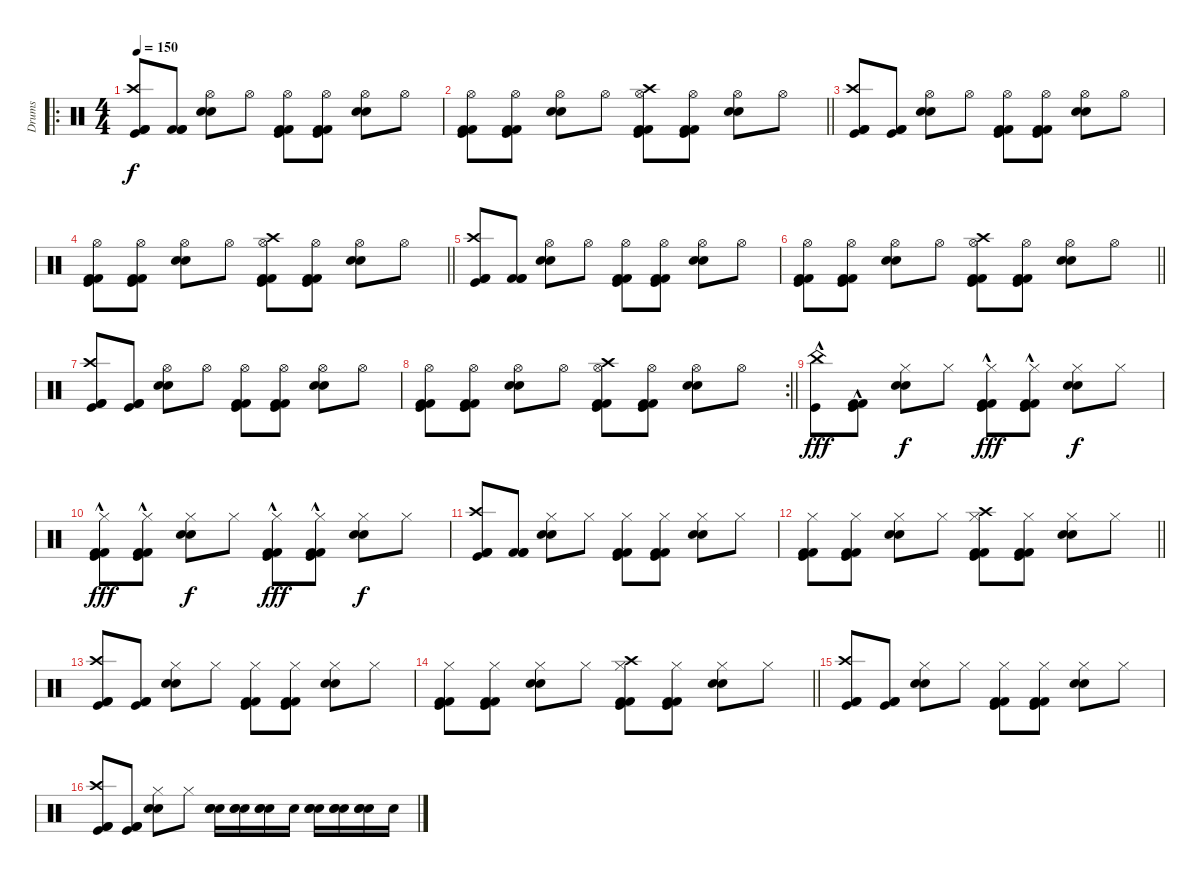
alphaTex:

\track ("Drums" "Drums") {instrument percussion}
\staff {score}
\articulation defaults
\ro
\ts (4 4)
\tempo 150
\clef neutral
\ks c
("Kick (hit) 2" "Crash high (hit)" "Kick (hit) 2" "Kick (hit)").8{dy f} ("Kick (hit) 2" "Kick (hit) 2" "Kick (hit) 2").8 ("Hi-Hat (open)" "Electric Snare (hit)" "Snare (hit) 2").8 "Hi-Hat (open)".8 ("Kick (hit) 2" "Hi-Hat (open)" "Kick (hit) 2" "Kick (hit)").8 ("Kick (hit) 2" "Hi-Hat (open)" "Kick (hit) 2" "Kick (hit)").8 ("Hi-Hat (open)" "Electric Snare (hit)" "Snare (hit) 2").8 "Hi-Hat (open)".8 |
\barLineRight lightlight
("Kick (hit) 2" "Hi-Hat (open)" "Kick (hit) 2" "Kick (hit)").8 ("Kick (hit) 2" "Hi-Hat (open)" "Kick (hit) 2" "Kick (hit)").8 ("Hi-Hat (open)" "Electric Snare (hit)" "Snare (hit) 2").8 "Hi-Hat (open)".8 ("Crash high (hit)" "Kick (hit) 2" "Hi-Hat (open)" "Kick (hit) 2" "Kick (hit)").8 ("Kick (hit) 2" "Hi-Hat (open)" "Kick (hit) 2" "Kick (hit)").8 ("Hi-Hat (open)" "Electric Snare (hit)" "Snare (hit) 2").8 "Hi-Hat (open)".8 |
("Kick (hit) 2" "Crash high (hit)" "Kick (hit) 2" "Kick (hit)").8 ("Kick (hit) 2" "Kick (hit) 2" "Kick (hit)").8 ("Hi-Hat (open)" "Electric Snare (hit)" "Snare (hit) 2").8 "Hi-Hat (open)".8 ("Kick (hit) 2" "Hi-Hat (open)" "Kick (hit) 2" "Kick (hit)").8 ("Kick (hit) 2" "Hi-Hat (open)" "Kick (hit) 2" "Kick (hit)").8 ("Hi-Hat (open)" "Electric Snare (hit)" "Snare (hit) 2").8 "Hi-Hat (open)".8 |
\barLineRight lightlight
("Kick (hit) 2" "Hi-Hat (open)" "Kick (hit) 2" "Kick (hit)").8 ("Kick (hit) 2" "Hi-Hat (open)" "Kick (hit) 2" "Kick (hit)").8 ("Hi-Hat (open)" "Electric Snare (hit)" "Snare (hit) 2").8 "Hi-Hat (open)".8 ("Crash high (hit)" "Kick (hit) 2" "Hi-Hat (open)" "Kick (hit) 2" "Kick (hit)").8 ("Kick (hit) 2" "Hi-Hat (open)" "Kick (hit) 2" "Kick (hit)").8 ("Hi-Hat (open)" "Electric Snare (hit)" "Snare (hit) 2").8 "Hi-Hat (open)".8 |
("Kick (hit) 2" "Crash high (hit)" "Kick (hit) 2" "Kick (hit)").8 ("Kick (hit) 2" "Kick (hit) 2" "Kick (hit) 2").8 ("Hi-Hat (open)" "Electric Snare (hit)" "Snare (hit) 2").8 "Hi-Hat (open)".8 ("Kick (hit) 2" "Hi-Hat (open)" "Kick (hit) 2" "Kick (hit)").8 ("Kick (hit) 2" "Hi-Hat (open)" "Kick (hit) 2" "Kick (hit)").8 ("Hi-Hat (open)" "Electric Snare (hit)" "Snare (hit) 2").8 "Hi-Hat (open)".8 |
\barLineRight lightlight
("Kick (hit) 2" "Hi-Hat (open)" "Kick (hit) 2" "Kick (hit)").8 ("Kick (hit) 2" "Hi-Hat (open)" "Kick (hit) 2" "Kick (hit)").8 ("Hi-Hat (open)" "Electric Snare (hit)" "Snare (hit) 2").8 "Hi-Hat (open)".8 ("Crash high (hit)" "Kick (hit) 2" "Hi-Hat (open)" "Kick (hit) 2" "Kick (hit)").8 ("Kick (hit) 2" "Hi-Hat (open)" "Kick (hit) 2" "Kick (hit)").8 ("Hi-Hat (open)" "Electric Snare (hit)" "Snare (hit) 2").8 "Hi-Hat (open)".8 |
("Kick (hit) 2" "Crash high (hit)" "Kick (hit) 2" "Kick (hit)").8 ("Kick (hit) 2" "Kick (hit) 2" "Kick (hit)").8 ("Hi-Hat (open)" "Electric Snare (hit)" "Snare (hit) 2").8 "Hi-Hat (open)".8 ("Kick (hit) 2" "Hi-Hat (open)" "Kick (hit) 2" "Kick (hit)").8 ("Kick (hit) 2" "Hi-Hat (open)" "Kick (hit) 2" "Kick (hit)").8 ("Hi-Hat (open)" "Electric Snare (hit)" "Snare (hit) 2").8 "Hi-Hat (open)".8 |
\rc 2
\barLineRight lightlight
("Kick (hit) 2" "Hi-Hat (open)" "Kick (hit) 2" "Kick (hit)").8 ("Kick (hit) 2" "Hi-Hat (open)" "Kick (hit) 2" "Kick (hit)").8 ("Hi-Hat (open)" "Electric Snare (hit)" "Snare (hit) 2").8 "Hi-Hat (open)".8 ("Crash high (hit)" "Kick (hit) 2" "Hi-Hat (open)" "Kick (hit) 2" "Kick (hit)").8 ("Kick (hit) 2" "Hi-Hat (open)" "Kick (hit) 2" "Kick (hit)").8 ("Hi-Hat (open)" "Electric Snare (hit)" "Snare (hit) 2").8 "Hi-Hat (open)".8 |
("China (hit)"{hac} "Kick (hit)"{hac}).8{dy fff} ("Kick (hit) 2" "Kick (hit) 2"{hac} "Kick (hit)"{hac}).8 ("Hi-Hat (closed)" "Electric Snare (hit)" "Snare (hit) 2").8{dy f} "Hi-Hat (closed)".8 ("Kick (hit) 2" "Hi-Hat (closed)" "Kick (hit)"{hac} "Kick (hit) 2"{hac}).8{dy fff} ("Kick (hit) 2" "Hi-Hat (closed)" "Kick (hit)"{hac} "Kick (hit) 2"{hac}).8 ("Hi-Hat (closed)" "Electric Snare (hit)" "Snare (hit) 2").8{dy f} "Hi-Hat (closed)".8 |
("Kick (hit) 2" "Hi-Hat (closed)" "Kick (hit)"{hac} "Kick (hit) 2"{hac}).8{dy fff} ("Kick (hit) 2" "Hi-Hat (closed)" "Kick (hit)"{hac} "Kick (hit) 2"{hac}).8 ("Hi-Hat (closed)" "Electric Snare (hit)" "Snare (hit) 2").8{dy f} "Hi-Hat (closed)".8 ("Kick (hit) 2" "Hi-Hat (closed)" "Kick (hit)"{hac} "Kick (hit) 2"{hac}).8{dy fff} ("Kick (hit) 2" "Hi-Hat (closed)" "Kick (hit)"{hac} "Kick (hit) 2"{hac}).8 ("Hi-Hat (closed)" "Electric Snare (hit)" "Snare (hit) 2").8{dy f} "Hi-Hat (closed)".8 |
("Kick (hit) 2" "Crash high (hit)" "Kick (hit) 2" "Kick (hit)").8 ("Kick (hit) 2" "Kick (hit) 2" "Kick (hit) 2").8 ("Hi-Hat (closed)" "Electric Snare (hit)" "Snare (hit) 2").8 "Hi-Hat (closed)".8 ("Kick (hit) 2" "Hi-Hat (closed)" "Kick (hit) 2" "Kick (hit)").8 ("Kick (hit) 2" "Hi-Hat (closed)" "Kick (hit) 2" "Kick (hit)").8 ("Hi-Hat (closed)" "Electric Snare (hit)" "Snare (hit) 2").8 "Hi-Hat (closed)".8 |
\barLineRight lightlight
("Kick (hit) 2" "Hi-Hat (closed)" "Kick (hit) 2" "Kick (hit)").8 ("Kick (hit) 2" "Hi-Hat (closed)" "Kick (hit) 2" "Kick (hit)").8 ("Hi-Hat (closed)" "Electric Snare (hit)" "Snare (hit) 2").8 "Hi-Hat (closed)".8 ("Crash high (hit)" "Kick (hit) 2" "Hi-Hat (closed)" "Kick (hit) 2" "Kick (hit)").8 ("Kick (hit) 2" "Hi-Hat (closed)" "Kick (hit) 2" "Kick (hit)").8 ("Hi-Hat (closed)" "Electric Snare (hit)" "Snare (hit) 2").8 "Hi-Hat (closed)".8 |
("Kick (hit) 2" "Crash high (hit)" "Kick (hit) 2" "Kick (hit)").8 ("Kick (hit) 2" "Kick (hit) 2" "Kick (hit)").8 ("Hi-Hat (closed)" "Electric Snare (hit)" "Snare (hit) 2").8 "Hi-Hat (closed)".8 ("Kick (hit) 2" "Hi-Hat (closed)" "Kick (hit) 2" "Kick (hit)").8 ("Kick (hit) 2" "Hi-Hat (closed)" "Kick (hit) 2" "Kick (hit)").8 ("Hi-Hat (closed)" "Electric Snare (hit)" "Snare (hit) 2").8 "Hi-Hat (closed)".8 |
\barLineRight lightlight
("Kick (hit) 2" "Hi-Hat (closed)" "Kick (hit) 2" "Kick (hit)").8 ("Kick (hit) 2" "Hi-Hat (closed)" "Kick (hit) 2" "Kick (hit)").8 ("Hi-Hat (closed)" "Electric Snare (hit)" "Snare (hit) 2").8 "Hi-Hat (closed)".8 ("Crash high (hit)" "Kick (hit) 2" "Hi-Hat (closed)" "Kick (hit) 2" "Kick (hit)").8 ("Kick (hit) 2" "Hi-Hat (closed)" "Kick (hit) 2" "Kick (hit)").8 ("Hi-Hat (closed)" "Electric Snare (hit)" "Snare (hit) 2").8 "Hi-Hat (closed)".8 |
("Kick (hit) 2" "Crash high (hit)" "Kick (hit) 2" "Kick (hit)").8 ("Kick (hit) 2" "Kick (hit) 2" "Kick (hit)").8 ("Hi-Hat (closed)" "Electric Snare (hit)" "Snare (hit) 2").8 "Hi-Hat (closed)".8 ("Kick (hit) 2" "Hi-Hat (closed)" "Kick (hit) 2" "Kick (hit)").8 ("Kick (hit) 2" "Hi-Hat (closed)" "Kick (hit) 2" "Kick (hit)").8 ("Hi-Hat (closed)" "Electric Snare (hit)" "Snare (hit) 2").8 "Hi-Hat (closed)".8 |
("Kick (hit) 2" "Crash high (hit)" "Kick (hit) 2" "Kick (hit)").8 ("Kick (hit) 2" "Kick (hit) 2" "Kick (hit)").8 ("Hi-Hat (closed)" "Electric Snare (hit)" "Snare (hit) 2").8 "Hi-Hat (closed)".8 ("Snare (hit) 2" "Snare (hit) 2" "Electric Snare (hit)").16 ("Snare (hit) 2" "Snare (hit) 2" "Electric Snare (hit)").16 ("Snare (hit) 2" "Snare (hit) 2" "Electric Snare (hit)").16 "Electric Snare (hit)".16 ("Snare (hit) 2" "Snare (hit) 2" "Electric Snare (hit)").16 ("Snare (hit) 2" "Snare (hit) 2" "Electric Snare (hit)").16 ("Snare (hit) 2" "Snare (hit) 2" "Electric Snare (hit)").16 "Electric Snare (hit)".16
